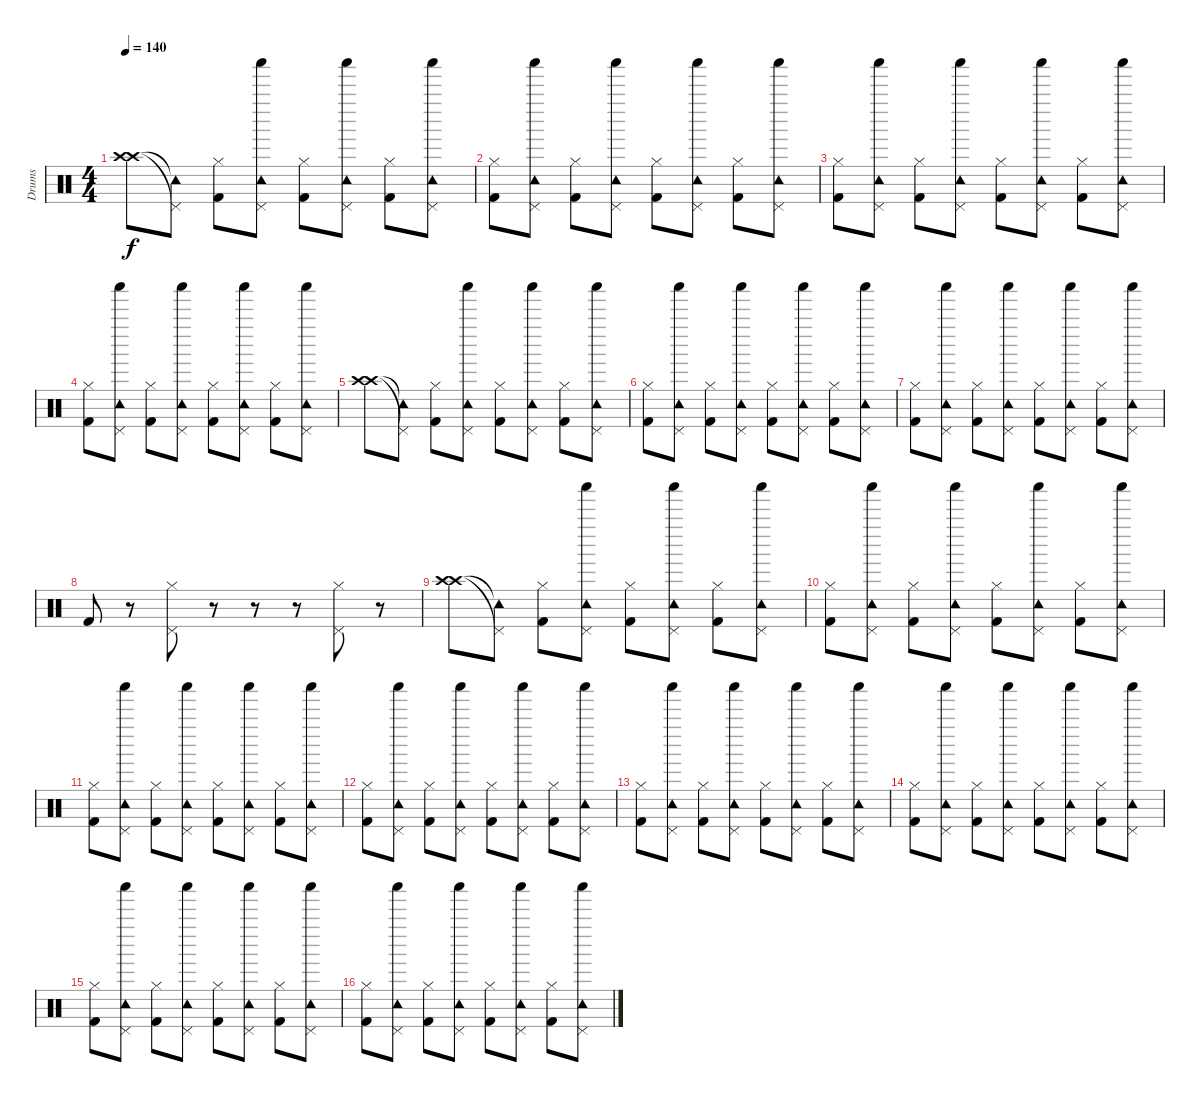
\track ("Drums" "Drums") {instrument percussion}
\staff {score}
\articulation defaults
\ts (4 4)
\tempo 140
\clef neutral
\ks c
("Crash high (hit)" "Crash high (hit)").8{dy f} ("Pedal Hi-Hat (hit)"{t} "Tambourine (hit)"{t}).8 ("Hi-Hat (closed)" "Kick (hit) 2").8 ("Pedal Hi-Hat (hit)" "Tambourine (hit)" "Shaker (hit)").8 ("Kick (hit) 2" "Hi-Hat (closed)").8 ("Pedal Hi-Hat (hit)" "Tambourine (hit)" "Shaker (hit)").8 ("Kick (hit) 2" "Hi-Hat (closed)").8 ("Pedal Hi-Hat (hit)" "Tambourine (hit)" "Shaker (hit)").8 |
("Kick (hit) 2" "Hi-Hat (closed)").8 ("Pedal Hi-Hat (hit)" "Tambourine (hit)" "Shaker (hit)").8 ("Kick (hit) 2" "Hi-Hat (closed)").8 ("Pedal Hi-Hat (hit)" "Tambourine (hit)" "Shaker (hit)").8 ("Kick (hit) 2" "Hi-Hat (closed)").8 ("Pedal Hi-Hat (hit)" "Tambourine (hit)" "Shaker (hit)").8 ("Kick (hit) 2" "Hi-Hat (closed)").8 ("Pedal Hi-Hat (hit)" "Tambourine (hit)" "Shaker (hit)").8 |
("Kick (hit) 2" "Hi-Hat (closed)").8 ("Pedal Hi-Hat (hit)" "Tambourine (hit)" "Shaker (hit)").8 ("Kick (hit) 2" "Hi-Hat (closed)").8 ("Pedal Hi-Hat (hit)" "Tambourine (hit)" "Shaker (hit)").8 ("Kick (hit) 2" "Hi-Hat (closed)").8 ("Pedal Hi-Hat (hit)" "Tambourine (hit)" "Shaker (hit)").8 ("Kick (hit) 2" "Hi-Hat (closed)").8 ("Pedal Hi-Hat (hit)" "Tambourine (hit)" "Shaker (hit)").8 |
("Kick (hit) 2" "Hi-Hat (closed)").8 ("Pedal Hi-Hat (hit)" "Tambourine (hit)" "Shaker (hit)").8 ("Kick (hit) 2" "Hi-Hat (closed)").8 ("Pedal Hi-Hat (hit)" "Tambourine (hit)" "Shaker (hit)").8 ("Kick (hit) 2" "Hi-Hat (closed)").8 ("Pedal Hi-Hat (hit)" "Tambourine (hit)" "Shaker (hit)").8 ("Kick (hit) 2" "Hi-Hat (closed)").8 ("Pedal Hi-Hat (hit)" "Tambourine (hit)" "Shaker (hit)").8 |
("Crash high (hit)" "Crash high (hit)").8 ("Pedal Hi-Hat (hit)"{t} "Tambourine (hit)"{t}).8 ("Hi-Hat (closed)" "Kick (hit) 2").8 ("Pedal Hi-Hat (hit)" "Tambourine (hit)" "Shaker (hit)").8 ("Kick (hit) 2" "Hi-Hat (closed)").8 ("Pedal Hi-Hat (hit)" "Tambourine (hit)" "Shaker (hit)").8 ("Kick (hit) 2" "Hi-Hat (closed)").8 ("Pedal Hi-Hat (hit)" "Tambourine (hit)" "Shaker (hit)").8 |
("Kick (hit) 2" "Hi-Hat (closed)").8 ("Pedal Hi-Hat (hit)" "Tambourine (hit)" "Shaker (hit)").8 ("Kick (hit) 2" "Hi-Hat (closed)").8 ("Pedal Hi-Hat (hit)" "Tambourine (hit)" "Shaker (hit)").8 ("Kick (hit) 2" "Hi-Hat (closed)").8 ("Pedal Hi-Hat (hit)" "Tambourine (hit)" "Shaker (hit)").8 ("Kick (hit) 2" "Hi-Hat (closed)").8 ("Pedal Hi-Hat (hit)" "Tambourine (hit)" "Shaker (hit)").8 |
("Kick (hit) 2" "Hi-Hat (closed)").8 ("Pedal Hi-Hat (hit)" "Tambourine (hit)" "Shaker (hit)").8 ("Kick (hit) 2" "Hi-Hat (closed)").8 ("Pedal Hi-Hat (hit)" "Tambourine (hit)" "Shaker (hit)").8 ("Kick (hit) 2" "Hi-Hat (closed)").8 ("Pedal Hi-Hat (hit)" "Tambourine (hit)" "Shaker (hit)").8 ("Kick (hit) 2" "Hi-Hat (closed)").8 ("Pedal Hi-Hat (hit)" "Tambourine (hit)" "Shaker (hit)").8 |
"Kick (hit) 2".8 r.8 ("Pedal Hi-Hat (hit)" "Hi-Hat (closed)").8 r.8 r.8 r.8 ("Pedal Hi-Hat (hit)" "Hi-Hat (closed)").8 r.8 |
("Crash high (hit)" "Crash high (hit)").8 ("Pedal Hi-Hat (hit)"{t} "Tambourine (hit)"{t}).8 ("Hi-Hat (closed)" "Kick (hit) 2").8 ("Pedal Hi-Hat (hit)" "Tambourine (hit)" "Shaker (hit)").8 ("Kick (hit) 2" "Hi-Hat (closed)").8 ("Pedal Hi-Hat (hit)" "Tambourine (hit)" "Shaker (hit)").8 ("Kick (hit) 2" "Hi-Hat (closed)").8 ("Pedal Hi-Hat (hit)" "Tambourine (hit)" "Shaker (hit)").8 |
("Kick (hit) 2" "Hi-Hat (closed)").8 ("Pedal Hi-Hat (hit)" "Tambourine (hit)" "Shaker (hit)").8 ("Kick (hit) 2" "Hi-Hat (closed)").8 ("Pedal Hi-Hat (hit)" "Tambourine (hit)" "Shaker (hit)").8 ("Kick (hit) 2" "Hi-Hat (closed)").8 ("Pedal Hi-Hat (hit)" "Tambourine (hit)" "Shaker (hit)").8 ("Kick (hit) 2" "Hi-Hat (closed)").8 ("Pedal Hi-Hat (hit)" "Tambourine (hit)" "Shaker (hit)").8 |
("Kick (hit) 2" "Hi-Hat (closed)").8 ("Pedal Hi-Hat (hit)" "Tambourine (hit)" "Shaker (hit)").8 ("Kick (hit) 2" "Hi-Hat (closed)").8 ("Pedal Hi-Hat (hit)" "Tambourine (hit)" "Shaker (hit)").8 ("Kick (hit) 2" "Hi-Hat (closed)").8 ("Pedal Hi-Hat (hit)" "Tambourine (hit)" "Shaker (hit)").8 ("Kick (hit) 2" "Hi-Hat (closed)").8 ("Pedal Hi-Hat (hit)" "Tambourine (hit)" "Shaker (hit)").8 |
("Kick (hit) 2" "Hi-Hat (closed)").8 ("Pedal Hi-Hat (hit)" "Tambourine (hit)" "Shaker (hit)").8 ("Kick (hit) 2" "Hi-Hat (closed)").8 ("Pedal Hi-Hat (hit)" "Tambourine (hit)" "Shaker (hit)").8 ("Kick (hit) 2" "Hi-Hat (closed)").8 ("Pedal Hi-Hat (hit)" "Tambourine (hit)" "Shaker (hit)").8 ("Kick (hit) 2" "Hi-Hat (closed)").8 ("Pedal Hi-Hat (hit)" "Tambourine (hit)" "Shaker (hit)").8 |
("Kick (hit) 2" "Hi-Hat (closed)").8 ("Pedal Hi-Hat (hit)" "Tambourine (hit)" "Shaker (hit)").8 ("Kick (hit) 2" "Hi-Hat (closed)").8 ("Pedal Hi-Hat (hit)" "Tambourine (hit)" "Shaker (hit)").8 ("Kick (hit) 2" "Hi-Hat (closed)").8 ("Pedal Hi-Hat (hit)" "Tambourine (hit)" "Shaker (hit)").8 ("Kick (hit) 2" "Hi-Hat (closed)").8 ("Pedal Hi-Hat (hit)" "Tambourine (hit)" "Shaker (hit)").8 |
("Kick (hit) 2" "Hi-Hat (closed)").8 ("Pedal Hi-Hat (hit)" "Tambourine (hit)" "Shaker (hit)").8 ("Kick (hit) 2" "Hi-Hat (closed)").8 ("Pedal Hi-Hat (hit)" "Tambourine (hit)" "Shaker (hit)").8 ("Kick (hit) 2" "Hi-Hat (closed)").8 ("Pedal Hi-Hat (hit)" "Tambourine (hit)" "Shaker (hit)").8 ("Kick (hit) 2" "Hi-Hat (closed)").8 ("Pedal Hi-Hat (hit)" "Tambourine (hit)" "Shaker (hit)").8 |
("Kick (hit) 2" "Hi-Hat (closed)").8 ("Pedal Hi-Hat (hit)" "Tambourine (hit)" "Shaker (hit)").8 ("Kick (hit) 2" "Hi-Hat (closed)").8 ("Pedal Hi-Hat (hit)" "Tambourine (hit)" "Shaker (hit)").8 ("Kick (hit) 2" "Hi-Hat (closed)").8 ("Pedal Hi-Hat (hit)" "Tambourine (hit)" "Shaker (hit)").8 ("Kick (hit) 2" "Hi-Hat (closed)").8 ("Pedal Hi-Hat (hit)" "Tambourine (hit)" "Shaker (hit)").8 |
("Kick (hit) 2" "Hi-Hat (closed)").8 ("Pedal Hi-Hat (hit)" "Tambourine (hit)" "Shaker (hit)").8 ("Kick (hit) 2" "Hi-Hat (closed)").8 ("Pedal Hi-Hat (hit)" "Tambourine (hit)" "Shaker (hit)").8 ("Kick (hit) 2" "Hi-Hat (closed)").8 ("Pedal Hi-Hat (hit)" "Tambourine (hit)" "Shaker (hit)").8 ("Kick (hit) 2" "Hi-Hat (closed)").8 ("Pedal Hi-Hat (hit)" "Tambourine (hit)" "Shaker (hit)").8
